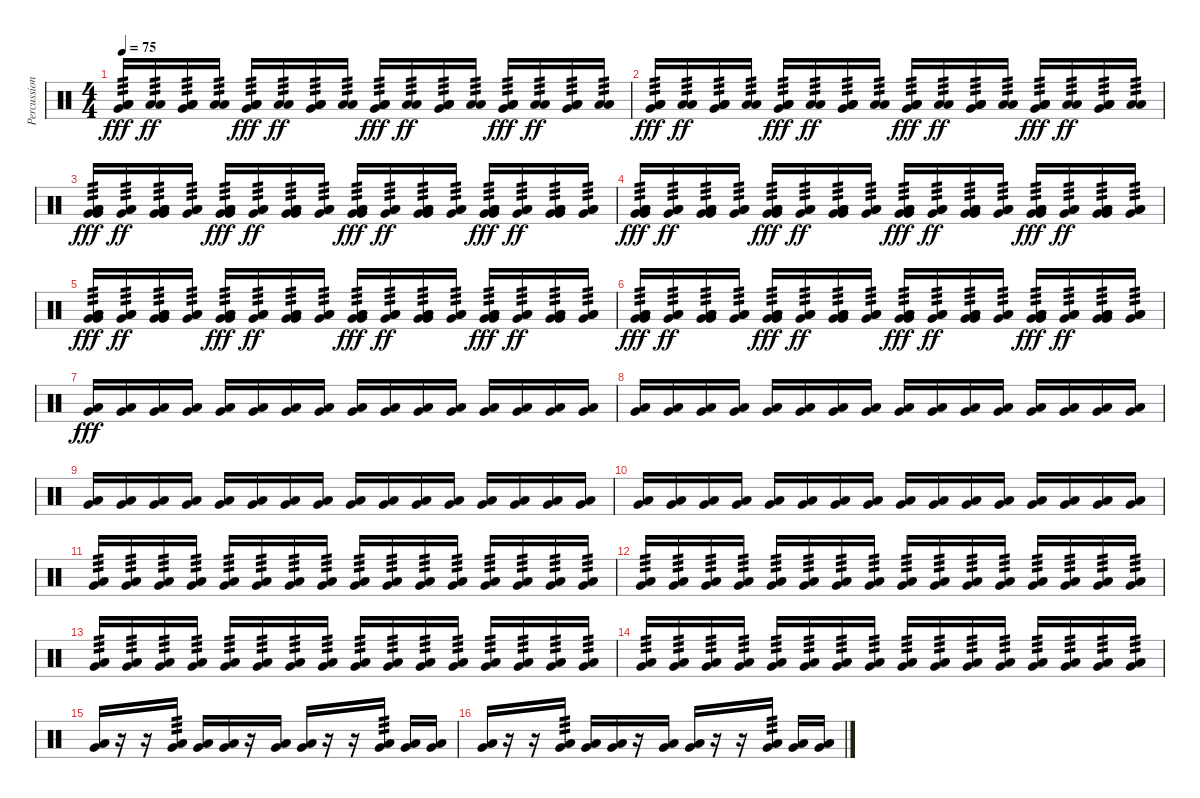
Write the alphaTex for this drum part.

\track ("Percussion" "Percussion") {instrument percussion}
\staff {score}
\articulation defaults
\ts (4 4)
\tempo 75
\clef neutral
\ks c
("Low Floor Tom (hit)" "Low Floor Tom (hit)" "Very Low Tom (hit)" "Low Floor Tom (hit)").16{tp 3 dy fff} ("Low Floor Tom (hit)" "Low Floor Tom (hit)").16{tp 3 dy ff} ("Low Floor Tom (hit)" "Low Floor Tom (hit)" "Very Low Tom (hit)" "Low Floor Tom (hit)").16{tp 3} ("Low Floor Tom (hit)" "Low Floor Tom (hit)").16{tp 3} ("Low Floor Tom (hit)" "Low Floor Tom (hit)" "Very Low Tom (hit)" "Low Floor Tom (hit)").16{tp 3 dy fff} ("Low Floor Tom (hit)" "Low Floor Tom (hit)").16{tp 3 dy ff} ("Low Floor Tom (hit)" "Low Floor Tom (hit)" "Very Low Tom (hit)" "Low Floor Tom (hit)").16{tp 3} ("Low Floor Tom (hit)" "Low Floor Tom (hit)").16{tp 3} ("Low Floor Tom (hit)" "Low Floor Tom (hit)" "Very Low Tom (hit)" "Low Floor Tom (hit)").16{tp 3 dy fff} ("Low Floor Tom (hit)" "Low Floor Tom (hit)").16{tp 3 dy ff} ("Low Floor Tom (hit)" "Low Floor Tom (hit)" "Very Low Tom (hit)" "Low Floor Tom (hit)").16{tp 3} ("Low Floor Tom (hit)" "Low Floor Tom (hit)").16{tp 3} ("Low Floor Tom (hit)" "Low Floor Tom (hit)" "Very Low Tom (hit)" "Low Floor Tom (hit)").16{tp 3 dy fff} ("Low Floor Tom (hit)" "Low Floor Tom (hit)").16{tp 3 dy ff} ("Low Floor Tom (hit)" "Low Floor Tom (hit)" "Very Low Tom (hit)" "Low Floor Tom (hit)").16{tp 3} ("Low Floor Tom (hit)" "Low Floor Tom (hit)").16{tp 3} |
("Low Floor Tom (hit)" "Low Floor Tom (hit)" "Very Low Tom (hit)" "Low Floor Tom (hit)").16{tp 3 dy fff} ("Low Floor Tom (hit)" "Low Floor Tom (hit)").16{tp 3 dy ff} ("Low Floor Tom (hit)" "Low Floor Tom (hit)" "Very Low Tom (hit)" "Low Floor Tom (hit)").16{tp 3} ("Low Floor Tom (hit)" "Low Floor Tom (hit)").16{tp 3} ("Low Floor Tom (hit)" "Low Floor Tom (hit)" "Very Low Tom (hit)" "Low Floor Tom (hit)").16{tp 3 dy fff} ("Low Floor Tom (hit)" "Low Floor Tom (hit)").16{tp 3 dy ff} ("Low Floor Tom (hit)" "Low Floor Tom (hit)" "Very Low Tom (hit)" "Low Floor Tom (hit)").16{tp 3} ("Low Floor Tom (hit)" "Low Floor Tom (hit)").16{tp 3} ("Low Floor Tom (hit)" "Low Floor Tom (hit)" "Very Low Tom (hit)" "Low Floor Tom (hit)").16{tp 3 dy fff} ("Low Floor Tom (hit)" "Low Floor Tom (hit)").16{tp 3 dy ff} ("Low Floor Tom (hit)" "Low Floor Tom (hit)" "Very Low Tom (hit)" "Low Floor Tom (hit)").16{tp 3} ("Low Floor Tom (hit)" "Low Floor Tom (hit)").16{tp 3} ("Low Floor Tom (hit)" "Low Floor Tom (hit)" "Very Low Tom (hit)" "Low Floor Tom (hit)").16{tp 3 dy fff} ("Low Floor Tom (hit)" "Low Floor Tom (hit)").16{tp 3 dy ff} ("Low Floor Tom (hit)" "Low Floor Tom (hit)" "Very Low Tom (hit)" "Low Floor Tom (hit)").16{tp 3} ("Low Floor Tom (hit)" "Low Floor Tom (hit)").16{tp 3} |
("Very Low Tom (hit)" "Low Floor Tom (hit)" "Low Floor Tom (hit)" "Very Low Tom (hit)" "Low Floor Tom (hit)").16{tp 3 dy fff} ("Very Low Tom (hit)" "Low Floor Tom (hit)" "Low Floor Tom (hit)").16{tp 3 dy ff} ("Very Low Tom (hit)" "Low Floor Tom (hit)" "Low Floor Tom (hit)" "Very Low Tom (hit)" "Low Floor Tom (hit)").16{tp 3} ("Very Low Tom (hit)" "Low Floor Tom (hit)" "Low Floor Tom (hit)").16{tp 3} ("Very Low Tom (hit)" "Low Floor Tom (hit)" "Low Floor Tom (hit)" "Very Low Tom (hit)" "Low Floor Tom (hit)").16{tp 3 dy fff} ("Very Low Tom (hit)" "Low Floor Tom (hit)" "Low Floor Tom (hit)").16{tp 3 dy ff} ("Very Low Tom (hit)" "Low Floor Tom (hit)" "Low Floor Tom (hit)" "Very Low Tom (hit)" "Low Floor Tom (hit)").16{tp 3} ("Very Low Tom (hit)" "Low Floor Tom (hit)" "Low Floor Tom (hit)").16{tp 3} ("Very Low Tom (hit)" "Low Floor Tom (hit)" "Low Floor Tom (hit)" "Very Low Tom (hit)" "Low Floor Tom (hit)").16{tp 3 dy fff} ("Very Low Tom (hit)" "Low Floor Tom (hit)" "Low Floor Tom (hit)").16{tp 3 dy ff} ("Very Low Tom (hit)" "Low Floor Tom (hit)" "Low Floor Tom (hit)" "Very Low Tom (hit)" "Low Floor Tom (hit)").16{tp 3} ("Very Low Tom (hit)" "Low Floor Tom (hit)" "Low Floor Tom (hit)").16{tp 3} ("Very Low Tom (hit)" "Low Floor Tom (hit)" "Low Floor Tom (hit)" "Very Low Tom (hit)" "Low Floor Tom (hit)").16{tp 3 dy fff} ("Very Low Tom (hit)" "Low Floor Tom (hit)" "Low Floor Tom (hit)").16{tp 3 dy ff} ("Very Low Tom (hit)" "Low Floor Tom (hit)" "Low Floor Tom (hit)" "Very Low Tom (hit)" "Low Floor Tom (hit)").16{tp 3} ("Very Low Tom (hit)" "Low Floor Tom (hit)" "Low Floor Tom (hit)").16{tp 3} |
("Very Low Tom (hit)" "Low Floor Tom (hit)" "Low Floor Tom (hit)" "Very Low Tom (hit)" "Low Floor Tom (hit)").16{tp 3 dy fff} ("Very Low Tom (hit)" "Low Floor Tom (hit)" "Low Floor Tom (hit)").16{tp 3 dy ff} ("Very Low Tom (hit)" "Low Floor Tom (hit)" "Low Floor Tom (hit)" "Very Low Tom (hit)" "Low Floor Tom (hit)").16{tp 3} ("Very Low Tom (hit)" "Low Floor Tom (hit)" "Low Floor Tom (hit)").16{tp 3} ("Very Low Tom (hit)" "Low Floor Tom (hit)" "Low Floor Tom (hit)" "Very Low Tom (hit)" "Low Floor Tom (hit)").16{tp 3 dy fff} ("Very Low Tom (hit)" "Low Floor Tom (hit)" "Low Floor Tom (hit)").16{tp 3 dy ff} ("Very Low Tom (hit)" "Low Floor Tom (hit)" "Low Floor Tom (hit)" "Very Low Tom (hit)" "Low Floor Tom (hit)").16{tp 3} ("Very Low Tom (hit)" "Low Floor Tom (hit)" "Low Floor Tom (hit)").16{tp 3} ("Very Low Tom (hit)" "Low Floor Tom (hit)" "Low Floor Tom (hit)" "Very Low Tom (hit)" "Low Floor Tom (hit)").16{tp 3 dy fff} ("Very Low Tom (hit)" "Low Floor Tom (hit)" "Low Floor Tom (hit)").16{tp 3 dy ff} ("Very Low Tom (hit)" "Low Floor Tom (hit)" "Low Floor Tom (hit)" "Very Low Tom (hit)" "Low Floor Tom (hit)").16{tp 3} ("Very Low Tom (hit)" "Low Floor Tom (hit)" "Low Floor Tom (hit)").16{tp 3} ("Very Low Tom (hit)" "Low Floor Tom (hit)" "Low Floor Tom (hit)" "Very Low Tom (hit)" "Low Floor Tom (hit)").16{tp 3 dy fff} ("Very Low Tom (hit)" "Low Floor Tom (hit)" "Low Floor Tom (hit)").16{tp 3 dy ff} ("Very Low Tom (hit)" "Low Floor Tom (hit)" "Low Floor Tom (hit)" "Very Low Tom (hit)" "Low Floor Tom (hit)").16{tp 3} ("Very Low Tom (hit)" "Low Floor Tom (hit)" "Low Floor Tom (hit)").16{tp 3} |
("Very Low Tom (hit)" "Low Floor Tom (hit)" "Low Floor Tom (hit)" "Very Low Tom (hit)" "Low Floor Tom (hit)").16{tp 3 dy fff} ("Very Low Tom (hit)" "Low Floor Tom (hit)" "Low Floor Tom (hit)").16{tp 3 dy ff} ("Very Low Tom (hit)" "Low Floor Tom (hit)" "Low Floor Tom (hit)" "Very Low Tom (hit)" "Low Floor Tom (hit)").16{tp 3} ("Very Low Tom (hit)" "Low Floor Tom (hit)" "Low Floor Tom (hit)").16{tp 3} ("Very Low Tom (hit)" "Low Floor Tom (hit)" "Low Floor Tom (hit)" "Very Low Tom (hit)" "Low Floor Tom (hit)").16{tp 3 dy fff} ("Very Low Tom (hit)" "Low Floor Tom (hit)" "Low Floor Tom (hit)").16{tp 3 dy ff} ("Very Low Tom (hit)" "Low Floor Tom (hit)" "Low Floor Tom (hit)" "Very Low Tom (hit)" "Low Floor Tom (hit)").16{tp 3} ("Very Low Tom (hit)" "Low Floor Tom (hit)" "Low Floor Tom (hit)").16{tp 3} ("Very Low Tom (hit)" "Low Floor Tom (hit)" "Low Floor Tom (hit)" "Very Low Tom (hit)" "Low Floor Tom (hit)").16{tp 3 dy fff} ("Very Low Tom (hit)" "Low Floor Tom (hit)" "Low Floor Tom (hit)").16{tp 3 dy ff} ("Very Low Tom (hit)" "Low Floor Tom (hit)" "Low Floor Tom (hit)" "Very Low Tom (hit)" "Low Floor Tom (hit)").16{tp 3} ("Very Low Tom (hit)" "Low Floor Tom (hit)" "Low Floor Tom (hit)").16{tp 3} ("Very Low Tom (hit)" "Low Floor Tom (hit)" "Low Floor Tom (hit)" "Very Low Tom (hit)" "Low Floor Tom (hit)").16{tp 3 dy fff} ("Very Low Tom (hit)" "Low Floor Tom (hit)" "Low Floor Tom (hit)").16{tp 3 dy ff} ("Very Low Tom (hit)" "Low Floor Tom (hit)" "Low Floor Tom (hit)" "Very Low Tom (hit)" "Low Floor Tom (hit)").16{tp 3} ("Very Low Tom (hit)" "Low Floor Tom (hit)" "Low Floor Tom (hit)").16{tp 3} |
("Very Low Tom (hit)" "Low Floor Tom (hit)" "Low Floor Tom (hit)" "Very Low Tom (hit)" "Low Floor Tom (hit)").16{tp 3 dy fff} ("Very Low Tom (hit)" "Low Floor Tom (hit)" "Low Floor Tom (hit)").16{tp 3 dy ff} ("Very Low Tom (hit)" "Low Floor Tom (hit)" "Low Floor Tom (hit)" "Very Low Tom (hit)" "Low Floor Tom (hit)").16{tp 3} ("Very Low Tom (hit)" "Low Floor Tom (hit)" "Low Floor Tom (hit)").16{tp 3} ("Very Low Tom (hit)" "Low Floor Tom (hit)" "Low Floor Tom (hit)" "Very Low Tom (hit)" "Low Floor Tom (hit)").16{tp 3 dy fff} ("Very Low Tom (hit)" "Low Floor Tom (hit)" "Low Floor Tom (hit)").16{tp 3 dy ff} ("Very Low Tom (hit)" "Low Floor Tom (hit)" "Low Floor Tom (hit)" "Very Low Tom (hit)" "Low Floor Tom (hit)").16{tp 3} ("Very Low Tom (hit)" "Low Floor Tom (hit)" "Low Floor Tom (hit)").16{tp 3} ("Very Low Tom (hit)" "Low Floor Tom (hit)" "Low Floor Tom (hit)" "Very Low Tom (hit)" "Low Floor Tom (hit)").16{tp 3 dy fff} ("Very Low Tom (hit)" "Low Floor Tom (hit)" "Low Floor Tom (hit)").16{tp 3 dy ff} ("Very Low Tom (hit)" "Low Floor Tom (hit)" "Low Floor Tom (hit)" "Very Low Tom (hit)" "Low Floor Tom (hit)").16{tp 3} ("Very Low Tom (hit)" "Low Floor Tom (hit)" "Low Floor Tom (hit)").16{tp 3} ("Very Low Tom (hit)" "Low Floor Tom (hit)" "Low Floor Tom (hit)" "Very Low Tom (hit)" "Low Floor Tom (hit)").16{tp 3 dy fff} ("Very Low Tom (hit)" "Low Floor Tom (hit)" "Low Floor Tom (hit)").16{tp 3 dy ff} ("Very Low Tom (hit)" "Low Floor Tom (hit)" "Low Floor Tom (hit)" "Very Low Tom (hit)" "Low Floor Tom (hit)").16{tp 3} ("Very Low Tom (hit)" "Low Floor Tom (hit)" "Low Floor Tom (hit)").16{tp 3} |
("Very Low Tom (hit)" "Low Floor Tom (hit)").16{dy fff} ("Very Low Tom (hit)" "Low Floor Tom (hit)").16 ("Very Low Tom (hit)" "Low Floor Tom (hit)").16 ("Very Low Tom (hit)" "Low Floor Tom (hit)").16 ("Very Low Tom (hit)" "Low Floor Tom (hit)").16 ("Very Low Tom (hit)" "Low Floor Tom (hit)").16 ("Very Low Tom (hit)" "Low Floor Tom (hit)").16 ("Very Low Tom (hit)" "Low Floor Tom (hit)").16 ("Very Low Tom (hit)" "Low Floor Tom (hit)").16 ("Very Low Tom (hit)" "Low Floor Tom (hit)").16 ("Very Low Tom (hit)" "Low Floor Tom (hit)").16 ("Very Low Tom (hit)" "Low Floor Tom (hit)").16 ("Very Low Tom (hit)" "Low Floor Tom (hit)").16 ("Very Low Tom (hit)" "Low Floor Tom (hit)").16 ("Very Low Tom (hit)" "Low Floor Tom (hit)").16 ("Very Low Tom (hit)" "Low Floor Tom (hit)").16 |
("Very Low Tom (hit)" "Low Floor Tom (hit)").16 ("Very Low Tom (hit)" "Low Floor Tom (hit)").16 ("Very Low Tom (hit)" "Low Floor Tom (hit)").16 ("Very Low Tom (hit)" "Low Floor Tom (hit)").16 ("Very Low Tom (hit)" "Low Floor Tom (hit)").16 ("Very Low Tom (hit)" "Low Floor Tom (hit)").16 ("Very Low Tom (hit)" "Low Floor Tom (hit)").16 ("Very Low Tom (hit)" "Low Floor Tom (hit)").16 ("Very Low Tom (hit)" "Low Floor Tom (hit)").16 ("Very Low Tom (hit)" "Low Floor Tom (hit)").16 ("Very Low Tom (hit)" "Low Floor Tom (hit)").16 ("Very Low Tom (hit)" "Low Floor Tom (hit)").16 ("Very Low Tom (hit)" "Low Floor Tom (hit)").16 ("Very Low Tom (hit)" "Low Floor Tom (hit)").16 ("Very Low Tom (hit)" "Low Floor Tom (hit)").16 ("Very Low Tom (hit)" "Low Floor Tom (hit)").16 |
("Very Low Tom (hit)" "Low Floor Tom (hit)").16 ("Very Low Tom (hit)" "Low Floor Tom (hit)").16 ("Very Low Tom (hit)" "Low Floor Tom (hit)").16 ("Very Low Tom (hit)" "Low Floor Tom (hit)").16 ("Very Low Tom (hit)" "Low Floor Tom (hit)").16 ("Very Low Tom (hit)" "Low Floor Tom (hit)").16 ("Very Low Tom (hit)" "Low Floor Tom (hit)").16 ("Very Low Tom (hit)" "Low Floor Tom (hit)").16 ("Very Low Tom (hit)" "Low Floor Tom (hit)").16 ("Very Low Tom (hit)" "Low Floor Tom (hit)").16 ("Very Low Tom (hit)" "Low Floor Tom (hit)").16 ("Very Low Tom (hit)" "Low Floor Tom (hit)").16 ("Very Low Tom (hit)" "Low Floor Tom (hit)").16 ("Very Low Tom (hit)" "Low Floor Tom (hit)").16 ("Very Low Tom (hit)" "Low Floor Tom (hit)").16 ("Very Low Tom (hit)" "Low Floor Tom (hit)").16 |
("Very Low Tom (hit)" "Low Floor Tom (hit)").16 ("Very Low Tom (hit)" "Low Floor Tom (hit)").16 ("Very Low Tom (hit)" "Low Floor Tom (hit)").16 ("Very Low Tom (hit)" "Low Floor Tom (hit)").16 ("Very Low Tom (hit)" "Low Floor Tom (hit)").16 ("Very Low Tom (hit)" "Low Floor Tom (hit)").16 ("Very Low Tom (hit)" "Low Floor Tom (hit)").16 ("Very Low Tom (hit)" "Low Floor Tom (hit)").16 ("Very Low Tom (hit)" "Low Floor Tom (hit)").16 ("Very Low Tom (hit)" "Low Floor Tom (hit)").16 ("Very Low Tom (hit)" "Low Floor Tom (hit)").16 ("Very Low Tom (hit)" "Low Floor Tom (hit)").16 ("Very Low Tom (hit)" "Low Floor Tom (hit)").16 ("Very Low Tom (hit)" "Low Floor Tom (hit)").16 ("Very Low Tom (hit)" "Low Floor Tom (hit)").16 ("Very Low Tom (hit)" "Low Floor Tom (hit)").16 |
("Very Low Tom (hit)" "Low Floor Tom (hit)").16{tp 3} ("Very Low Tom (hit)" "Low Floor Tom (hit)").16{tp 3} ("Very Low Tom (hit)" "Low Floor Tom (hit)").16{tp 3} ("Very Low Tom (hit)" "Low Floor Tom (hit)").16{tp 3} ("Very Low Tom (hit)" "Low Floor Tom (hit)").16{tp 3} ("Very Low Tom (hit)" "Low Floor Tom (hit)").16{tp 3} ("Very Low Tom (hit)" "Low Floor Tom (hit)").16{tp 3} ("Very Low Tom (hit)" "Low Floor Tom (hit)").16{tp 3} ("Very Low Tom (hit)" "Low Floor Tom (hit)").16{tp 3} ("Very Low Tom (hit)" "Low Floor Tom (hit)").16{tp 3} ("Very Low Tom (hit)" "Low Floor Tom (hit)").16{tp 3} ("Very Low Tom (hit)" "Low Floor Tom (hit)").16{tp 3} ("Very Low Tom (hit)" "Low Floor Tom (hit)").16{tp 3} ("Very Low Tom (hit)" "Low Floor Tom (hit)").16{tp 3} ("Very Low Tom (hit)" "Low Floor Tom (hit)").16{tp 3} ("Very Low Tom (hit)" "Low Floor Tom (hit)").16{tp 3} |
("Very Low Tom (hit)" "Low Floor Tom (hit)").16{tp 3} ("Very Low Tom (hit)" "Low Floor Tom (hit)").16{tp 3} ("Very Low Tom (hit)" "Low Floor Tom (hit)").16{tp 3} ("Very Low Tom (hit)" "Low Floor Tom (hit)").16{tp 3} ("Very Low Tom (hit)" "Low Floor Tom (hit)").16{tp 3} ("Very Low Tom (hit)" "Low Floor Tom (hit)").16{tp 3} ("Very Low Tom (hit)" "Low Floor Tom (hit)").16{tp 3} ("Very Low Tom (hit)" "Low Floor Tom (hit)").16{tp 3} ("Very Low Tom (hit)" "Low Floor Tom (hit)").16{tp 3} ("Very Low Tom (hit)" "Low Floor Tom (hit)").16{tp 3} ("Very Low Tom (hit)" "Low Floor Tom (hit)").16{tp 3} ("Very Low Tom (hit)" "Low Floor Tom (hit)").16{tp 3} ("Very Low Tom (hit)" "Low Floor Tom (hit)").16{tp 3} ("Very Low Tom (hit)" "Low Floor Tom (hit)").16{tp 3} ("Very Low Tom (hit)" "Low Floor Tom (hit)").16{tp 3} ("Very Low Tom (hit)" "Low Floor Tom (hit)").16{tp 3} |
("Very Low Tom (hit)" "Low Floor Tom (hit)").16{tp 3} ("Very Low Tom (hit)" "Low Floor Tom (hit)").16{tp 3} ("Very Low Tom (hit)" "Low Floor Tom (hit)").16{tp 3} ("Very Low Tom (hit)" "Low Floor Tom (hit)").16{tp 3} ("Very Low Tom (hit)" "Low Floor Tom (hit)").16{tp 3} ("Very Low Tom (hit)" "Low Floor Tom (hit)").16{tp 3} ("Very Low Tom (hit)" "Low Floor Tom (hit)").16{tp 3} ("Very Low Tom (hit)" "Low Floor Tom (hit)").16{tp 3} ("Very Low Tom (hit)" "Low Floor Tom (hit)").16{tp 3} ("Very Low Tom (hit)" "Low Floor Tom (hit)").16{tp 3} ("Very Low Tom (hit)" "Low Floor Tom (hit)").16{tp 3} ("Very Low Tom (hit)" "Low Floor Tom (hit)").16{tp 3} ("Very Low Tom (hit)" "Low Floor Tom (hit)").16{tp 3} ("Very Low Tom (hit)" "Low Floor Tom (hit)").16{tp 3} ("Very Low Tom (hit)" "Low Floor Tom (hit)").16{tp 3} ("Very Low Tom (hit)" "Low Floor Tom (hit)").16{tp 3} |
("Very Low Tom (hit)" "Low Floor Tom (hit)").16{tp 3} ("Very Low Tom (hit)" "Low Floor Tom (hit)").16{tp 3} ("Very Low Tom (hit)" "Low Floor Tom (hit)").16{tp 3} ("Very Low Tom (hit)" "Low Floor Tom (hit)").16{tp 3} ("Very Low Tom (hit)" "Low Floor Tom (hit)").16{tp 3} ("Very Low Tom (hit)" "Low Floor Tom (hit)").16{tp 3} ("Very Low Tom (hit)" "Low Floor Tom (hit)").16{tp 3} ("Very Low Tom (hit)" "Low Floor Tom (hit)").16{tp 3} ("Very Low Tom (hit)" "Low Floor Tom (hit)").16{tp 3} ("Very Low Tom (hit)" "Low Floor Tom (hit)").16{tp 3} ("Very Low Tom (hit)" "Low Floor Tom (hit)").16{tp 3} ("Very Low Tom (hit)" "Low Floor Tom (hit)").16{tp 3} ("Very Low Tom (hit)" "Low Floor Tom (hit)").16{tp 3} ("Very Low Tom (hit)" "Low Floor Tom (hit)").16{tp 3} ("Very Low Tom (hit)" "Low Floor Tom (hit)").16{tp 3} ("Very Low Tom (hit)" "Low Floor Tom (hit)").16{tp 3} |
("Very Low Tom (hit)" "Low Floor Tom (hit)").16 r.16 r.16 ("Very Low Tom (hit)" "Low Floor Tom (hit)").16{tp 3} ("Very Low Tom (hit)" "Low Floor Tom (hit)").16 ("Very Low Tom (hit)" "Low Floor Tom (hit)").16 r.16 ("Very Low Tom (hit)" "Low Floor Tom (hit)").16 ("Very Low Tom (hit)" "Low Floor Tom (hit)").16 r.16 r.16 ("Very Low Tom (hit)" "Low Floor Tom (hit)").16{tp 3} ("Very Low Tom (hit)" "Low Floor Tom (hit)").16 ("Very Low Tom (hit)" "Low Floor Tom (hit)").16 |
("Very Low Tom (hit)" "Low Floor Tom (hit)").16 r.16 r.16 ("Very Low Tom (hit)" "Low Floor Tom (hit)").16{tp 3} ("Very Low Tom (hit)" "Low Floor Tom (hit)").16 ("Very Low Tom (hit)" "Low Floor Tom (hit)").16 r.16 ("Very Low Tom (hit)" "Low Floor Tom (hit)").16 ("Very Low Tom (hit)" "Low Floor Tom (hit)").16 r.16 r.16 ("Very Low Tom (hit)" "Low Floor Tom (hit)").16{tp 3} ("Very Low Tom (hit)" "Low Floor Tom (hit)").16 ("Very Low Tom (hit)" "Low Floor Tom (hit)").16
